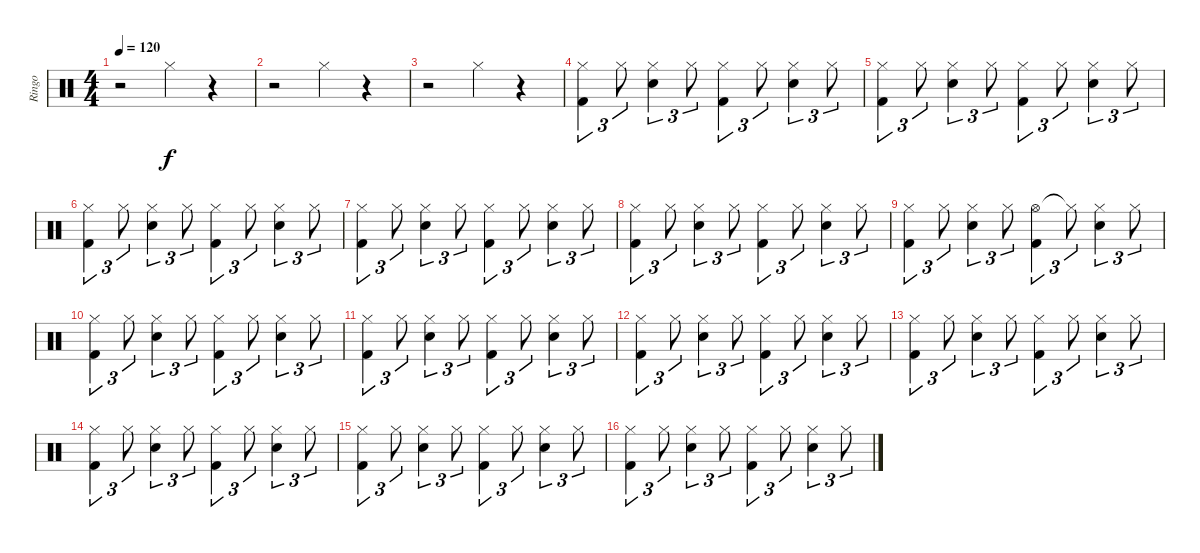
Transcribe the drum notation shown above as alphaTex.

\track ("Ringo" "Ringo") {instrument percussion}
\staff {score}
\articulation defaults
\ts (4 4)
\tempo 120
\clef neutral
\ks c
r.2{dy f} "Hi-Hat (closed)".4 r.4 |
r.2 "Hi-Hat (closed)".4 r.4 |
r.2 "Hi-Hat (closed)".4 r.4 |
("Hi-Hat (closed)" "Kick (hit) 2").4{tu (3 2)} "Hi-Hat (closed)".8{tu (3 2)} ("Hi-Hat (closed)" "Snare (hit) 2").4{tu (3 2)} "Hi-Hat (closed)".8{tu (3 2)} ("Hi-Hat (closed)" "Kick (hit) 2").4{tu (3 2)} "Hi-Hat (closed)".8{tu (3 2)} ("Hi-Hat (closed)" "Snare (hit) 2").4{tu (3 2)} "Hi-Hat (closed)".8{tu (3 2)} |
("Hi-Hat (closed)" "Kick (hit) 2").4{tu (3 2)} "Hi-Hat (closed)".8{tu (3 2)} ("Hi-Hat (closed)" "Snare (hit) 2").4{tu (3 2)} "Hi-Hat (closed)".8{tu (3 2)} ("Hi-Hat (closed)" "Kick (hit) 2").4{tu (3 2)} "Hi-Hat (closed)".8{tu (3 2)} ("Hi-Hat (closed)" "Snare (hit) 2").4{tu (3 2)} "Hi-Hat (closed)".8{tu (3 2)} |
("Hi-Hat (closed)" "Kick (hit) 2").4{tu (3 2)} "Hi-Hat (closed)".8{tu (3 2)} ("Hi-Hat (closed)" "Snare (hit) 2").4{tu (3 2)} "Hi-Hat (closed)".8{tu (3 2)} ("Hi-Hat (closed)" "Kick (hit) 2").4{tu (3 2)} "Hi-Hat (closed)".8{tu (3 2)} ("Hi-Hat (closed)" "Snare (hit) 2").4{tu (3 2)} "Hi-Hat (closed)".8{tu (3 2)} |
("Hi-Hat (closed)" "Kick (hit) 2").4{tu (3 2)} "Hi-Hat (closed)".8{tu (3 2)} ("Hi-Hat (closed)" "Snare (hit) 2").4{tu (3 2)} "Hi-Hat (closed)".8{tu (3 2)} ("Hi-Hat (closed)" "Kick (hit) 2").4{tu (3 2)} "Hi-Hat (closed)".8{tu (3 2)} ("Hi-Hat (closed)" "Snare (hit) 2").4{tu (3 2)} "Hi-Hat (closed)".8{tu (3 2)} |
("Hi-Hat (closed)" "Kick (hit) 2").4{tu (3 2)} "Hi-Hat (closed)".8{tu (3 2)} ("Hi-Hat (closed)" "Snare (hit) 2").4{tu (3 2)} "Hi-Hat (closed)".8{tu (3 2)} ("Hi-Hat (closed)" "Kick (hit) 2").4{tu (3 2)} "Hi-Hat (closed)".8{tu (3 2)} ("Hi-Hat (closed)" "Snare (hit) 2").4{tu (3 2)} "Hi-Hat (closed)".8{tu (3 2)} |
("Hi-Hat (closed)" "Kick (hit) 2").4{tu (3 2)} "Hi-Hat (closed)".8{tu (3 2)} ("Hi-Hat (closed)" "Snare (hit) 2").4{tu (3 2)} "Hi-Hat (closed)".8{tu (3 2)} ("Hi-Hat (open)" "Kick (hit) 2").4{tu (3 2)} "Hi-Hat (closed)"{t}.8{tu (3 2)} ("Hi-Hat (closed)" "Snare (hit) 2").4{tu (3 2)} "Hi-Hat (closed)".8{tu (3 2)} |
("Hi-Hat (closed)" "Kick (hit) 2").4{tu (3 2)} "Hi-Hat (closed)".8{tu (3 2)} ("Hi-Hat (closed)" "Snare (hit) 2").4{tu (3 2)} "Hi-Hat (closed)".8{tu (3 2)} ("Hi-Hat (closed)" "Kick (hit) 2").4{tu (3 2)} "Hi-Hat (closed)".8{tu (3 2)} ("Hi-Hat (closed)" "Snare (hit) 2").4{tu (3 2)} "Hi-Hat (closed)".8{tu (3 2)} |
("Hi-Hat (closed)" "Kick (hit) 2").4{tu (3 2)} "Hi-Hat (closed)".8{tu (3 2)} ("Hi-Hat (closed)" "Snare (hit) 2").4{tu (3 2)} "Hi-Hat (closed)".8{tu (3 2)} ("Hi-Hat (closed)" "Kick (hit) 2").4{tu (3 2)} "Hi-Hat (closed)".8{tu (3 2)} ("Hi-Hat (closed)" "Snare (hit) 2").4{tu (3 2)} "Hi-Hat (closed)".8{tu (3 2)} |
("Hi-Hat (closed)" "Kick (hit) 2").4{tu (3 2)} "Hi-Hat (closed)".8{tu (3 2)} ("Hi-Hat (closed)" "Snare (hit) 2").4{tu (3 2)} "Hi-Hat (closed)".8{tu (3 2)} ("Hi-Hat (closed)" "Kick (hit) 2").4{tu (3 2)} "Hi-Hat (closed)".8{tu (3 2)} ("Hi-Hat (closed)" "Snare (hit) 2").4{tu (3 2)} "Hi-Hat (closed)".8{tu (3 2)} |
("Hi-Hat (closed)" "Kick (hit) 2").4{tu (3 2)} "Hi-Hat (closed)".8{tu (3 2)} ("Hi-Hat (closed)" "Snare (hit) 2").4{tu (3 2)} "Hi-Hat (closed)".8{tu (3 2)} ("Hi-Hat (closed)" "Kick (hit) 2").4{tu (3 2)} "Hi-Hat (closed)".8{tu (3 2)} ("Hi-Hat (closed)" "Snare (hit) 2").4{tu (3 2)} "Hi-Hat (closed)".8{tu (3 2)} |
("Hi-Hat (closed)" "Kick (hit) 2").4{tu (3 2)} "Hi-Hat (closed)".8{tu (3 2)} ("Hi-Hat (closed)" "Snare (hit) 2").4{tu (3 2)} "Hi-Hat (closed)".8{tu (3 2)} ("Hi-Hat (closed)" "Kick (hit) 2").4{tu (3 2)} "Hi-Hat (closed)".8{tu (3 2)} ("Hi-Hat (closed)" "Snare (hit) 2").4{tu (3 2)} "Hi-Hat (closed)".8{tu (3 2)} |
("Hi-Hat (closed)" "Kick (hit) 2").4{tu (3 2)} "Hi-Hat (closed)".8{tu (3 2)} ("Hi-Hat (closed)" "Snare (hit) 2").4{tu (3 2)} "Hi-Hat (closed)".8{tu (3 2)} ("Hi-Hat (closed)" "Kick (hit) 2").4{tu (3 2)} "Hi-Hat (closed)".8{tu (3 2)} ("Hi-Hat (closed)" "Snare (hit) 2").4{tu (3 2)} "Hi-Hat (closed)".8{tu (3 2)} |
("Hi-Hat (closed)" "Kick (hit) 2").4{tu (3 2)} "Hi-Hat (closed)".8{tu (3 2)} ("Hi-Hat (closed)" "Snare (hit) 2").4{tu (3 2)} "Hi-Hat (closed)".8{tu (3 2)} ("Hi-Hat (closed)" "Kick (hit) 2").4{tu (3 2)} "Hi-Hat (closed)".8{tu (3 2)} ("Hi-Hat (closed)" "Snare (hit) 2").4{tu (3 2)} "Hi-Hat (closed)".8{tu (3 2)}
